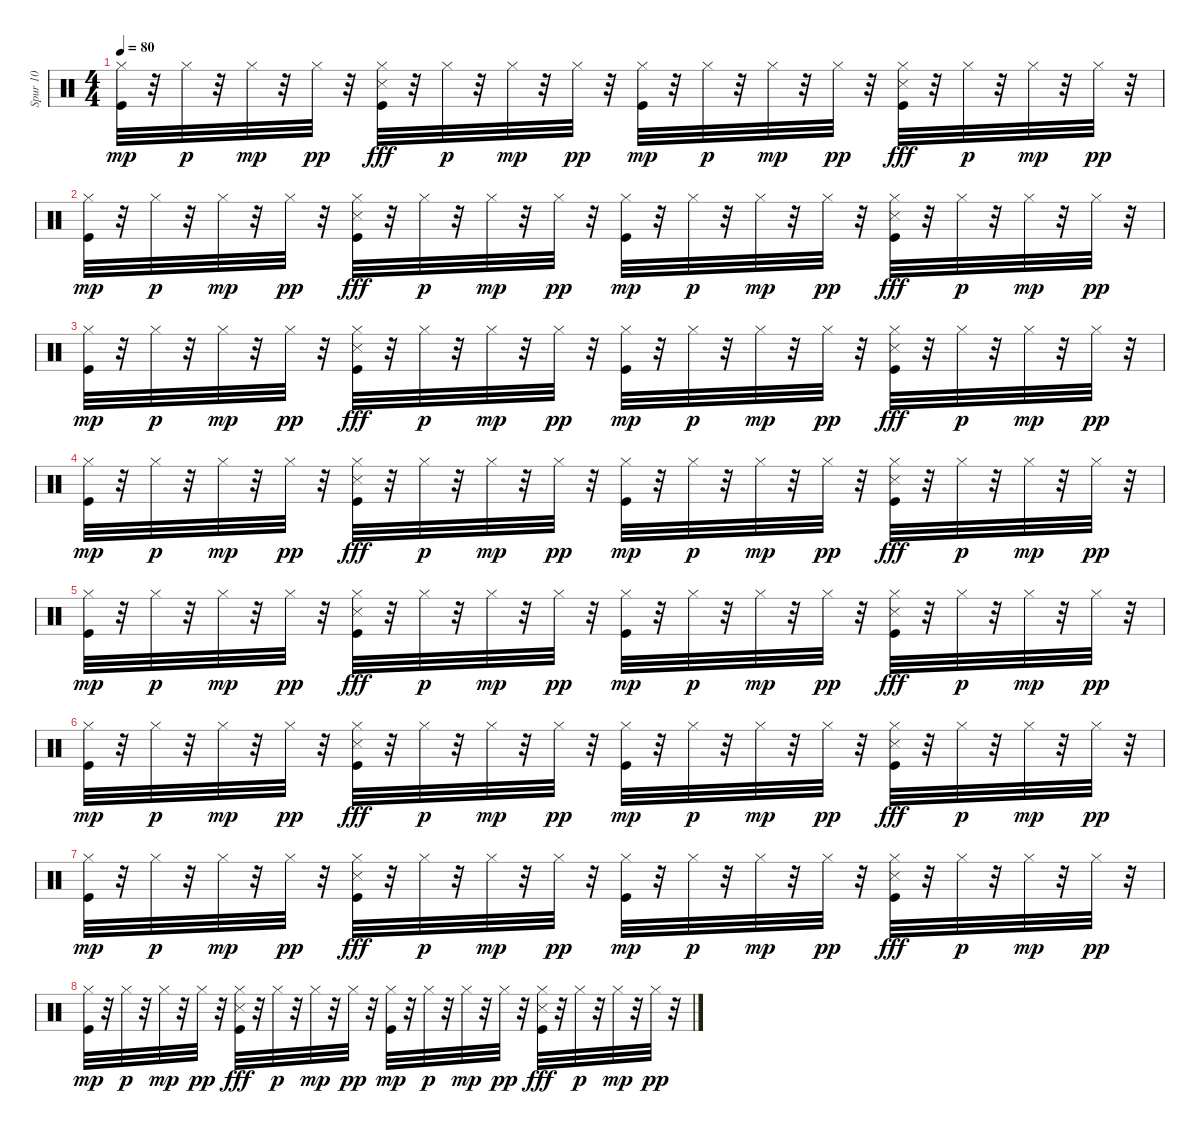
\track ("Spur 10" "Spur 10") {instrument percussion}
\staff {score}
\articulation defaults
\ts (4 4)
\tempo 80
\clef neutral
\ks c
("Hi-Hat (closed)" "Kick (hit)").32{dy mp} r.32 "Hi-Hat (closed)".32{dy p} r.32 "Hi-Hat (closed)".32{dy mp} r.32 "Hi-Hat (closed)".32{dy pp} r.32 ("Hi-Hat (closed)" "Snare (side stick) 3" "Kick (hit)").32{dy fff} r.32 "Hi-Hat (closed)".32{dy p} r.32 "Hi-Hat (closed)".32{dy mp} r.32 "Hi-Hat (closed)".32{dy pp} r.32 ("Hi-Hat (closed)" "Kick (hit)").32{dy mp} r.32 "Hi-Hat (closed)".32{dy p} r.32 "Hi-Hat (closed)".32{dy mp} r.32 "Hi-Hat (closed)".32{dy pp} r.32 ("Hi-Hat (closed)" "Snare (side stick) 3" "Kick (hit)").32{dy fff} r.32 "Hi-Hat (closed)".32{dy p} r.32 "Hi-Hat (closed)".32{dy mp} r.32 "Hi-Hat (closed)".32{dy pp} r.32 |
("Hi-Hat (closed)" "Kick (hit)").32{dy mp} r.32 "Hi-Hat (closed)".32{dy p} r.32 "Hi-Hat (closed)".32{dy mp} r.32 "Hi-Hat (closed)".32{dy pp} r.32 ("Hi-Hat (closed)" "Snare (side stick) 3" "Kick (hit)").32{dy fff} r.32 "Hi-Hat (closed)".32{dy p} r.32 "Hi-Hat (closed)".32{dy mp} r.32 "Hi-Hat (closed)".32{dy pp} r.32 ("Hi-Hat (closed)" "Kick (hit)").32{dy mp} r.32 "Hi-Hat (closed)".32{dy p} r.32 "Hi-Hat (closed)".32{dy mp} r.32 "Hi-Hat (closed)".32{dy pp} r.32 ("Hi-Hat (closed)" "Snare (side stick) 3" "Kick (hit)").32{dy fff} r.32 "Hi-Hat (closed)".32{dy p} r.32 "Hi-Hat (closed)".32{dy mp} r.32 "Hi-Hat (closed)".32{dy pp} r.32 |
("Hi-Hat (closed)" "Kick (hit)").32{dy mp} r.32 "Hi-Hat (closed)".32{dy p} r.32 "Hi-Hat (closed)".32{dy mp} r.32 "Hi-Hat (closed)".32{dy pp} r.32 ("Hi-Hat (closed)" "Snare (side stick) 3" "Kick (hit)").32{dy fff} r.32 "Hi-Hat (closed)".32{dy p} r.32 "Hi-Hat (closed)".32{dy mp} r.32 "Hi-Hat (closed)".32{dy pp} r.32 ("Hi-Hat (closed)" "Kick (hit)").32{dy mp} r.32 "Hi-Hat (closed)".32{dy p} r.32 "Hi-Hat (closed)".32{dy mp} r.32 "Hi-Hat (closed)".32{dy pp} r.32 ("Hi-Hat (closed)" "Snare (side stick) 3" "Kick (hit)").32{dy fff} r.32 "Hi-Hat (closed)".32{dy p} r.32 "Hi-Hat (closed)".32{dy mp} r.32 "Hi-Hat (closed)".32{dy pp} r.32 |
("Hi-Hat (closed)" "Kick (hit)").32{dy mp} r.32 "Hi-Hat (closed)".32{dy p} r.32 "Hi-Hat (closed)".32{dy mp} r.32 "Hi-Hat (closed)".32{dy pp} r.32 ("Hi-Hat (closed)" "Snare (side stick) 3" "Kick (hit)").32{dy fff} r.32 "Hi-Hat (closed)".32{dy p} r.32 "Hi-Hat (closed)".32{dy mp} r.32 "Hi-Hat (closed)".32{dy pp} r.32 ("Hi-Hat (closed)" "Kick (hit)").32{dy mp} r.32 "Hi-Hat (closed)".32{dy p} r.32 "Hi-Hat (closed)".32{dy mp} r.32 "Hi-Hat (closed)".32{dy pp} r.32 ("Hi-Hat (closed)" "Snare (side stick) 3" "Kick (hit)").32{dy fff} r.32 "Hi-Hat (closed)".32{dy p} r.32 "Hi-Hat (closed)".32{dy mp} r.32 "Hi-Hat (closed)".32{dy pp} r.32 |
("Hi-Hat (closed)" "Kick (hit)").32{dy mp} r.32 "Hi-Hat (closed)".32{dy p} r.32 "Hi-Hat (closed)".32{dy mp} r.32 "Hi-Hat (closed)".32{dy pp} r.32 ("Hi-Hat (closed)" "Snare (side stick) 3" "Kick (hit)").32{dy fff} r.32 "Hi-Hat (closed)".32{dy p} r.32 "Hi-Hat (closed)".32{dy mp} r.32 "Hi-Hat (closed)".32{dy pp} r.32 ("Hi-Hat (closed)" "Kick (hit)").32{dy mp} r.32 "Hi-Hat (closed)".32{dy p} r.32 "Hi-Hat (closed)".32{dy mp} r.32 "Hi-Hat (closed)".32{dy pp} r.32 ("Hi-Hat (closed)" "Snare (side stick) 3" "Kick (hit)").32{dy fff} r.32 "Hi-Hat (closed)".32{dy p} r.32 "Hi-Hat (closed)".32{dy mp} r.32 "Hi-Hat (closed)".32{dy pp} r.32 |
("Hi-Hat (closed)" "Kick (hit)").32{dy mp} r.32 "Hi-Hat (closed)".32{dy p} r.32 "Hi-Hat (closed)".32{dy mp} r.32 "Hi-Hat (closed)".32{dy pp} r.32 ("Hi-Hat (closed)" "Snare (side stick) 3" "Kick (hit)").32{dy fff} r.32 "Hi-Hat (closed)".32{dy p} r.32 "Hi-Hat (closed)".32{dy mp} r.32 "Hi-Hat (closed)".32{dy pp} r.32 ("Hi-Hat (closed)" "Kick (hit)").32{dy mp} r.32 "Hi-Hat (closed)".32{dy p} r.32 "Hi-Hat (closed)".32{dy mp} r.32 "Hi-Hat (closed)".32{dy pp} r.32 ("Hi-Hat (closed)" "Snare (side stick) 3" "Kick (hit)").32{dy fff} r.32 "Hi-Hat (closed)".32{dy p} r.32 "Hi-Hat (closed)".32{dy mp} r.32 "Hi-Hat (closed)".32{dy pp} r.32 |
("Hi-Hat (closed)" "Kick (hit)").32{dy mp} r.32 "Hi-Hat (closed)".32{dy p} r.32 "Hi-Hat (closed)".32{dy mp} r.32 "Hi-Hat (closed)".32{dy pp} r.32 ("Hi-Hat (closed)" "Snare (side stick) 3" "Kick (hit)").32{dy fff} r.32 "Hi-Hat (closed)".32{dy p} r.32 "Hi-Hat (closed)".32{dy mp} r.32 "Hi-Hat (closed)".32{dy pp} r.32 ("Hi-Hat (closed)" "Kick (hit)").32{dy mp} r.32 "Hi-Hat (closed)".32{dy p} r.32 "Hi-Hat (closed)".32{dy mp} r.32 "Hi-Hat (closed)".32{dy pp} r.32 ("Hi-Hat (closed)" "Snare (side stick) 3" "Kick (hit)").32{dy fff} r.32 "Hi-Hat (closed)".32{dy p} r.32 "Hi-Hat (closed)".32{dy mp} r.32 "Hi-Hat (closed)".32{dy pp} r.32 |
("Hi-Hat (closed)" "Kick (hit)").32{dy mp} r.32 "Hi-Hat (closed)".32{dy p} r.32 "Hi-Hat (closed)".32{dy mp} r.32 "Hi-Hat (closed)".32{dy pp} r.32 ("Hi-Hat (closed)" "Snare (side stick) 3" "Kick (hit)").32{dy fff} r.32 "Hi-Hat (closed)".32{dy p} r.32 "Hi-Hat (closed)".32{dy mp} r.32 "Hi-Hat (closed)".32{dy pp} r.32 ("Hi-Hat (closed)" "Kick (hit)").32{dy mp} r.32 "Hi-Hat (closed)".32{dy p} r.32 "Hi-Hat (closed)".32{dy mp} r.32 "Hi-Hat (closed)".32{dy pp} r.32 ("Hi-Hat (closed)" "Snare (side stick) 3" "Kick (hit)").32{dy fff} r.32 "Hi-Hat (closed)".32{dy p} r.32 "Hi-Hat (closed)".32{dy mp} r.32 "Hi-Hat (closed)".32{dy pp} r.32
